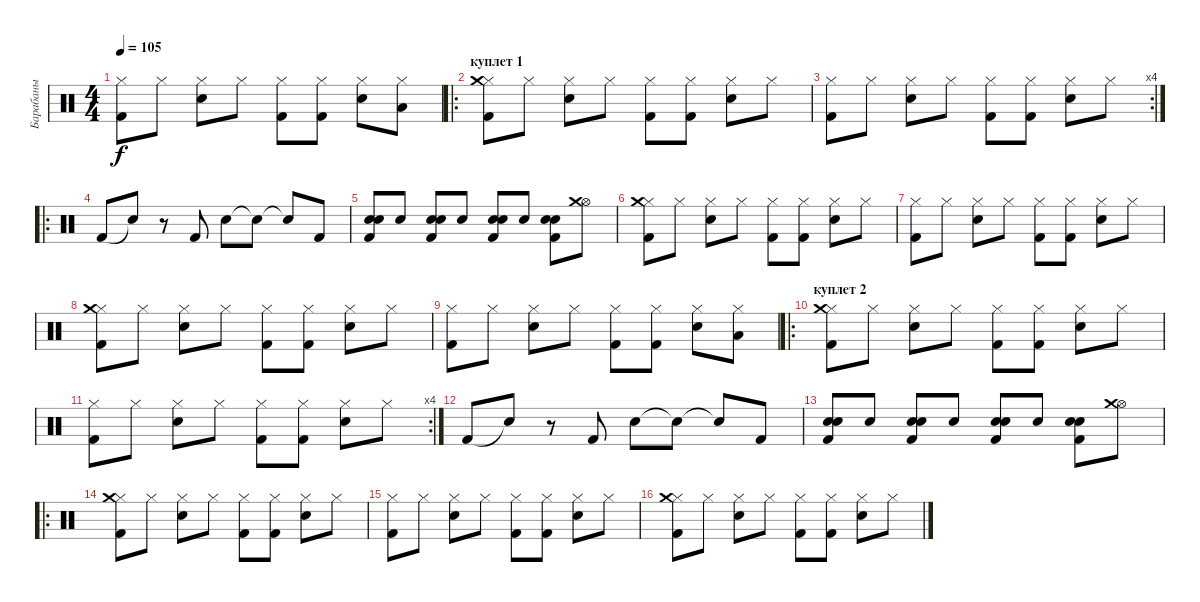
\track ("Барабаны" "Барабаны") {instrument percussion}
\staff {score}
\articulation defaults
\ts (4 4)
\tempo 105
\clef neutral
\ks c
("Hi-Hat (closed)" "Kick (hit) 2").8{dy f} "Hi-Hat (closed)".8 ("Hi-Hat (closed)" "Electric Snare (hit)").8 "Hi-Hat (closed)".8 ("Hi-Hat (closed)" "Kick (hit) 2").8 ("Hi-Hat (closed)" "Kick (hit) 2").8 ("Hi-Hat (closed)" "Electric Snare (hit)").8 ("Hi-Hat (closed)" "Low Tom (hit)").8 |
\ro
\section ("" "куплет 1")
("Hi-Hat (closed)" "Kick (hit) 2" "Crash medium (hit)").8 "Hi-Hat (closed)".8 ("Hi-Hat (closed)" "Electric Snare (hit)").8 "Hi-Hat (closed)".8 ("Hi-Hat (closed)" "Kick (hit) 2").8 ("Hi-Hat (closed)" "Kick (hit) 2").8 ("Hi-Hat (closed)" "Electric Snare (hit)").8 "Hi-Hat (closed)".8 |
\rc 4
("Hi-Hat (closed)" "Kick (hit) 2").8 "Hi-Hat (closed)".8 ("Hi-Hat (closed)" "Electric Snare (hit)").8 "Hi-Hat (closed)".8 ("Hi-Hat (closed)" "Kick (hit) 2").8 ("Hi-Hat (closed)" "Kick (hit) 2").8 ("Hi-Hat (closed)" "Electric Snare (hit)").8 "Hi-Hat (closed)".8 |
\ro "Kick (hit) 2".8 "Snare (hit)"{t}.8
r.8 "Kick (hit) 2".8 "Electric Snare (hit)".8 "Snare (hit)"{t}.8 "Snare (hit)"{t}.8 "Kick (hit) 2".8 |
("Electric Snare (hit)" "Kick (hit) 2" "Electric Snare (hit)").8 "Electric Snare (hit)".8 ("Electric Snare (hit)" "Kick (hit) 2" "Electric Snare (hit)").8 "Electric Snare (hit)".8 ("Electric Snare (hit)" "Kick (hit) 2" "Electric Snare (hit)").8 "Electric Snare (hit)".8 ("Electric Snare (hit)" "Kick (hit) 2" "Electric Snare (hit)").8 ("Hi-Hat (open)" "Crash medium (hit)").8 |
\section ("" " ")
("Hi-Hat (closed)" "Kick (hit) 2" "Crash medium (hit)").8 "Hi-Hat (closed)".8 ("Hi-Hat (closed)" "Electric Snare (hit)").8 "Hi-Hat (closed)".8 ("Hi-Hat (closed)" "Kick (hit) 2").8 ("Hi-Hat (closed)" "Kick (hit) 2").8 ("Hi-Hat (closed)" "Electric Snare (hit)").8 "Hi-Hat (closed)".8 |
("Hi-Hat (closed)" "Kick (hit) 2").8 "Hi-Hat (closed)".8 ("Hi-Hat (closed)" "Electric Snare (hit)").8 "Hi-Hat (closed)".8 ("Hi-Hat (closed)" "Kick (hit) 2").8 ("Hi-Hat (closed)" "Kick (hit) 2").8 ("Hi-Hat (closed)" "Electric Snare (hit)").8 "Hi-Hat (closed)".8 |
("Hi-Hat (closed)" "Kick (hit) 2" "Crash medium (hit)").8 "Hi-Hat (closed)".8 ("Hi-Hat (closed)" "Electric Snare (hit)").8 "Hi-Hat (closed)".8 ("Hi-Hat (closed)" "Kick (hit) 2").8 ("Hi-Hat (closed)" "Kick (hit) 2").8 ("Hi-Hat (closed)" "Electric Snare (hit)").8 "Hi-Hat (closed)".8 |
("Hi-Hat (closed)" "Kick (hit) 2").8 "Hi-Hat (closed)".8 ("Hi-Hat (closed)" "Electric Snare (hit)").8 "Hi-Hat (closed)".8 ("Hi-Hat (closed)" "Kick (hit) 2").8 ("Hi-Hat (closed)" "Kick (hit) 2").8 ("Hi-Hat (closed)" "Electric Snare (hit)").8 ("Hi-Hat (closed)" "Low Tom (hit)").8 |
\ro
\section ("" "куплет 2")
("Hi-Hat (closed)" "Kick (hit) 2" "Crash medium (hit)").8 "Hi-Hat (closed)".8 ("Hi-Hat (closed)" "Electric Snare (hit)").8 "Hi-Hat (closed)".8 ("Hi-Hat (closed)" "Kick (hit) 2").8 ("Hi-Hat (closed)" "Kick (hit) 2").8 ("Hi-Hat (closed)" "Electric Snare (hit)").8 "Hi-Hat (closed)".8 |
\rc 4
("Hi-Hat (closed)" "Kick (hit) 2").8 "Hi-Hat (closed)".8 ("Hi-Hat (closed)" "Electric Snare (hit)").8 "Hi-Hat (closed)".8 ("Hi-Hat (closed)" "Kick (hit) 2").8 ("Hi-Hat (closed)" "Kick (hit) 2").8 ("Hi-Hat (closed)" "Electric Snare (hit)").8 "Hi-Hat (closed)".8 |
"Kick (hit) 2".8 "Snare (hit)"{t}.8 r.8 "Kick (hit) 2".8 "Electric Snare (hit)".8 "Snare (hit)"{t}.8 "Snare (hit)"{t}.8 "Kick (hit) 2".8 |
("Electric Snare (hit)" "Kick (hit) 2" "Electric Snare (hit)").8 "Electric Snare (hit)".8 ("Electric Snare (hit)" "Kick (hit) 2" "Electric Snare (hit)").8 "Electric Snare (hit)".8 ("Electric Snare (hit)" "Kick (hit) 2" "Electric Snare (hit)").8 "Electric Snare (hit)".8 ("Electric Snare (hit)" "Kick (hit) 2" "Electric Snare (hit)").8 ("Hi-Hat (open)" "Crash medium (hit)").8 |
\ro
\section ("" "  ")
("Hi-Hat (closed)" "Kick (hit) 2" "Crash medium (hit)").8 "Hi-Hat (closed)".8 ("Hi-Hat (closed)" "Electric Snare (hit)").8 "Hi-Hat (closed)".8 ("Hi-Hat (closed)" "Kick (hit) 2").8 ("Hi-Hat (closed)" "Kick (hit) 2").8 ("Hi-Hat (closed)" "Electric Snare (hit)").8 "Hi-Hat (closed)".8 |
("Hi-Hat (closed)" "Kick (hit) 2").8 "Hi-Hat (closed)".8 ("Hi-Hat (closed)" "Electric Snare (hit)").8 "Hi-Hat (closed)".8 ("Hi-Hat (closed)" "Kick (hit) 2").8 ("Hi-Hat (closed)" "Kick (hit) 2").8 ("Hi-Hat (closed)" "Electric Snare (hit)").8 "Hi-Hat (closed)".8 |
("Hi-Hat (closed)" "Kick (hit) 2" "Crash medium (hit)").8 "Hi-Hat (closed)".8 ("Hi-Hat (closed)" "Electric Snare (hit)").8 "Hi-Hat (closed)".8 ("Hi-Hat (closed)" "Kick (hit) 2").8 ("Hi-Hat (closed)" "Kick (hit) 2").8 ("Hi-Hat (closed)" "Electric Snare (hit)").8 "Hi-Hat (closed)".8
